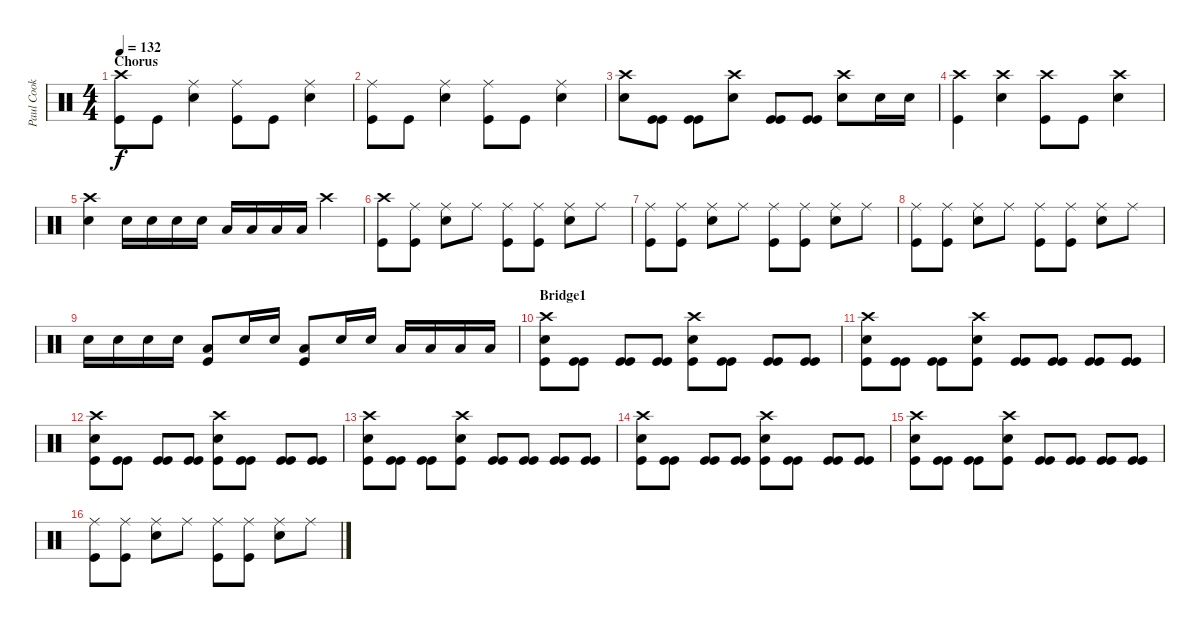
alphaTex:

\track ("Paul Cook" "Paul Cook") {instrument percussion}
\staff {score}
\articulation defaults
\ts (4 4)
\section ("" "Chorus")
\tempo 132
\clef neutral
\ks c
("Crash high (hit)" "Kick (hit)").8{dy f} "Kick (hit)".8 ("Ride (middle)" "Snare (hit) 2").4 ("Ride (middle)" "Kick (hit)").8 "Kick (hit)".8 ("Ride (middle)" "Snare (hit) 2").4 |
("Ride (middle)" "Kick (hit)").8 "Kick (hit)".8 ("Ride (middle)" "Snare (hit) 2").4 ("Ride (middle)" "Kick (hit)").8 "Kick (hit)".8 ("Ride (middle)" "Snare (hit) 2").4 |
("Crash high (hit)" "Snare (hit) 2").8 ("Kick (hit)" "Kick (hit)").8 ("Kick (hit)" "Kick (hit)").8 ("Crash high (hit)" "Snare (hit) 2").8 ("Kick (hit)" "Kick (hit)").8 ("Kick (hit)" "Kick (hit)").8 ("Crash high (hit)" "Snare (hit) 2").8 "Snare (hit) 2".16 "Snare (hit) 2".16 |
("Crash high (hit)" "Kick (hit)").4 ("Crash high (hit)" "Snare (hit) 2").4 ("Crash high (hit)" "Kick (hit)").8 "Kick (hit)".8 ("Crash high (hit)" "Snare (hit) 2").4 |
("Crash high (hit)" "Snare (hit) 2").4 "Snare (hit) 2".16 "Snare (hit) 2".16 "Snare (hit) 2".16 "Snare (hit) 2".16 "Low Floor Tom (hit)".16 "Low Floor Tom (hit)".16 "Low Floor Tom (hit)".16 "Low Floor Tom (hit)".16 "Crash high (hit)".4 |
("Crash high (hit)" "Kick (hit)").8 ("Ride (middle)" "Kick (hit)").8 ("Ride (middle)" "Snare (hit) 2").8 "Ride (middle)".8 ("Ride (middle)" "Kick (hit)").8 ("Ride (middle)" "Kick (hit)").8 ("Ride (middle)" "Snare (hit) 2").8 "Ride (middle)".8 |
("Ride (middle)" "Kick (hit)").8 ("Ride (middle)" "Kick (hit)").8 ("Ride (middle)" "Snare (hit) 2").8 "Ride (middle)".8 ("Ride (middle)" "Kick (hit)").8 ("Ride (middle)" "Kick (hit)").8 ("Ride (middle)" "Snare (hit) 2").8 "Ride (middle)".8 |
("Ride (middle)" "Kick (hit)").8 ("Ride (middle)" "Kick (hit)").8 ("Ride (middle)" "Snare (hit) 2").8 "Ride (middle)".8 ("Ride (middle)" "Kick (hit)").8 ("Ride (middle)" "Kick (hit)").8 ("Ride (middle)" "Snare (hit) 2").8 "Ride (middle)".8 |
"Snare (hit) 2".16 "Snare (hit) 2".16 "Snare (hit) 2".16 "Snare (hit) 2".16 ("Low Tom (hit)" "Kick (hit)").8 "Snare (hit) 2".16 "Snare (hit) 2".16 ("Low Tom (hit)" "Kick (hit)").8 "Snare (hit) 2".16 "Snare (hit) 2".16 "Low Tom (hit)".16 "Low Tom (hit)".16 "Low Tom (hit)".16 "Low Tom (hit)".16 |
\section ("" "Bridge1")
("Crash high (hit)" "Snare (hit) 2" "Kick (hit)").8 ("Kick (hit)" "Kick (hit)").8 ("Kick (hit)" "Kick (hit)").8 ("Kick (hit)" "Kick (hit)").8 ("Crash high (hit)" "Snare (hit) 2" "Kick (hit)").8 ("Kick (hit)" "Kick (hit)").8 ("Kick (hit)" "Kick (hit)").8 ("Kick (hit)" "Kick (hit)").8 |
("Crash high (hit)" "Snare (hit) 2" "Kick (hit)").8 ("Kick (hit)" "Kick (hit)").8 ("Kick (hit)" "Kick (hit)").8 ("Crash high (hit)" "Snare (hit) 2" "Kick (hit)").8 ("Kick (hit)" "Kick (hit)").8 ("Kick (hit)" "Kick (hit)").8 ("Kick (hit)" "Kick (hit)").8 ("Kick (hit)" "Kick (hit)").8 |
("Crash high (hit)" "Snare (hit) 2" "Kick (hit)").8 ("Kick (hit)" "Kick (hit)").8 ("Kick (hit)" "Kick (hit)").8 ("Kick (hit)" "Kick (hit)").8 ("Crash high (hit)" "Snare (hit) 2" "Kick (hit)").8 ("Kick (hit)" "Kick (hit)").8 ("Kick (hit)" "Kick (hit)").8 ("Kick (hit)" "Kick (hit)").8 |
("Crash high (hit)" "Snare (hit) 2" "Kick (hit)").8 ("Kick (hit)" "Kick (hit)").8 ("Kick (hit)" "Kick (hit)").8 ("Crash high (hit)" "Snare (hit) 2" "Kick (hit)").8 ("Kick (hit)" "Kick (hit)").8 ("Kick (hit)" "Kick (hit)").8 ("Kick (hit)" "Kick (hit)").8 ("Kick (hit)" "Kick (hit)").8 |
("Crash high (hit)" "Snare (hit) 2" "Kick (hit)").8 ("Kick (hit)" "Kick (hit)").8 ("Kick (hit)" "Kick (hit)").8 ("Kick (hit)" "Kick (hit)").8 ("Crash high (hit)" "Snare (hit) 2" "Kick (hit)").8 ("Kick (hit)" "Kick (hit)").8 ("Kick (hit)" "Kick (hit)").8 ("Kick (hit)" "Kick (hit)").8 |
("Crash high (hit)" "Snare (hit) 2" "Kick (hit)").8 ("Kick (hit)" "Kick (hit)").8 ("Kick (hit)" "Kick (hit)").8 ("Crash high (hit)" "Snare (hit) 2" "Kick (hit)").8 ("Kick (hit)" "Kick (hit)").8 ("Kick (hit)" "Kick (hit)").8 ("Kick (hit)" "Kick (hit)").8 ("Kick (hit)" "Kick (hit)").8 |
("Ride (middle)" "Kick (hit)").8 ("Ride (middle)" "Kick (hit)").8 ("Ride (middle)" "Snare (hit) 2").8 "Ride (middle)".8 ("Ride (middle)" "Kick (hit)").8 ("Ride (middle)" "Kick (hit)").8 ("Ride (middle)" "Snare (hit) 2").8 "Ride (middle)".8
